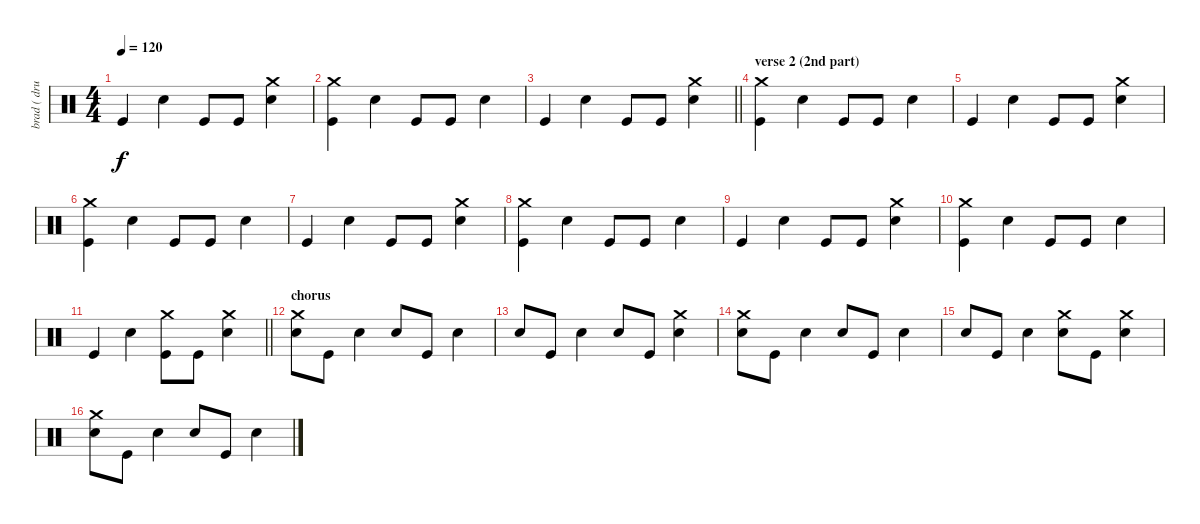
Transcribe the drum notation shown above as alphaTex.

\track ("brad ( drums)" "brad ( dru") {instrument percussion}
\staff {score}
\articulation defaults
\ts (4 4)
\tempo 120
\clef neutral
\ks c "Kick (hit)".4{dy f} "Electric Snare (hit)".4 "Kick (hit)".8 "Kick (hit)".8
("Electric Snare (hit)" "Crash medium (hit)").4 |
("Kick (hit)" "Crash medium (hit)").4 "Electric Snare (hit)".4 "Kick (hit)".8 "Kick (hit)".8 "Electric Snare (hit)".4 |
\barLineRight lightlight "Kick (hit)".4 "Electric Snare (hit)".4 "Kick (hit)".8 "Kick (hit)".8
("Electric Snare (hit)" "Crash medium (hit)").4 |
\section ("" "verse 2 (2nd part)")
("Kick (hit)" "Crash medium (hit)").4 "Electric Snare (hit)".4 "Kick (hit)".8 "Kick (hit)".8 "Electric Snare (hit)".4 |
"Kick (hit)".4 "Electric Snare (hit)".4 "Kick (hit)".8 "Kick (hit)".8 ("Electric Snare (hit)" "Crash medium (hit)").4 |
("Kick (hit)" "Crash medium (hit)").4 "Electric Snare (hit)".4 "Kick (hit)".8 "Kick (hit)".8 "Electric Snare (hit)".4 |
"Kick (hit)".4 "Electric Snare (hit)".4 "Kick (hit)".8 "Kick (hit)".8 ("Electric Snare (hit)" "Crash medium (hit)").4 |
("Kick (hit)" "Crash medium (hit)").4 "Electric Snare (hit)".4 "Kick (hit)".8 "Kick (hit)".8 "Electric Snare (hit)".4 |
"Kick (hit)".4 "Electric Snare (hit)".4 "Kick (hit)".8 "Kick (hit)".8 ("Electric Snare (hit)" "Crash medium (hit)").4 |
("Kick (hit)" "Crash medium (hit)").4 "Electric Snare (hit)".4 "Kick (hit)".8 "Kick (hit)".8 "Electric Snare (hit)".4 |
\barLineRight lightlight "Kick (hit)".4 "Electric Snare (hit)".4
("Kick (hit)" "Crash medium (hit)").8 "Kick (hit)".8 ("Electric Snare (hit)" "Crash medium (hit)").4 |
\section ("" "chorus")
("Electric Snare (hit)" "Crash medium (hit)").8 "Kick (hit)".8 "Electric Snare (hit)".4 "Electric Snare (hit)".8 "Kick (hit)".8 "Electric Snare (hit)".4 |
"Electric Snare (hit)".8 "Kick (hit)".8 "Electric Snare (hit)".4 "Electric Snare (hit)".8 "Kick (hit)".8 ("Electric Snare (hit)" "Crash medium (hit)").4 |
("Electric Snare (hit)" "Crash medium (hit)").8 "Kick (hit)".8 "Electric Snare (hit)".4 "Electric Snare (hit)".8 "Kick (hit)".8 "Electric Snare (hit)".4 |
"Electric Snare (hit)".8 "Kick (hit)".8 "Electric Snare (hit)".4 ("Electric Snare (hit)" "Crash medium (hit)").8 "Kick (hit)".8 ("Electric Snare (hit)" "Crash medium (hit)").4 |
("Electric Snare (hit)" "Crash medium (hit)").8 "Kick (hit)".8 "Electric Snare (hit)".4 "Electric Snare (hit)".8 "Kick (hit)".8 "Electric Snare (hit)".4
